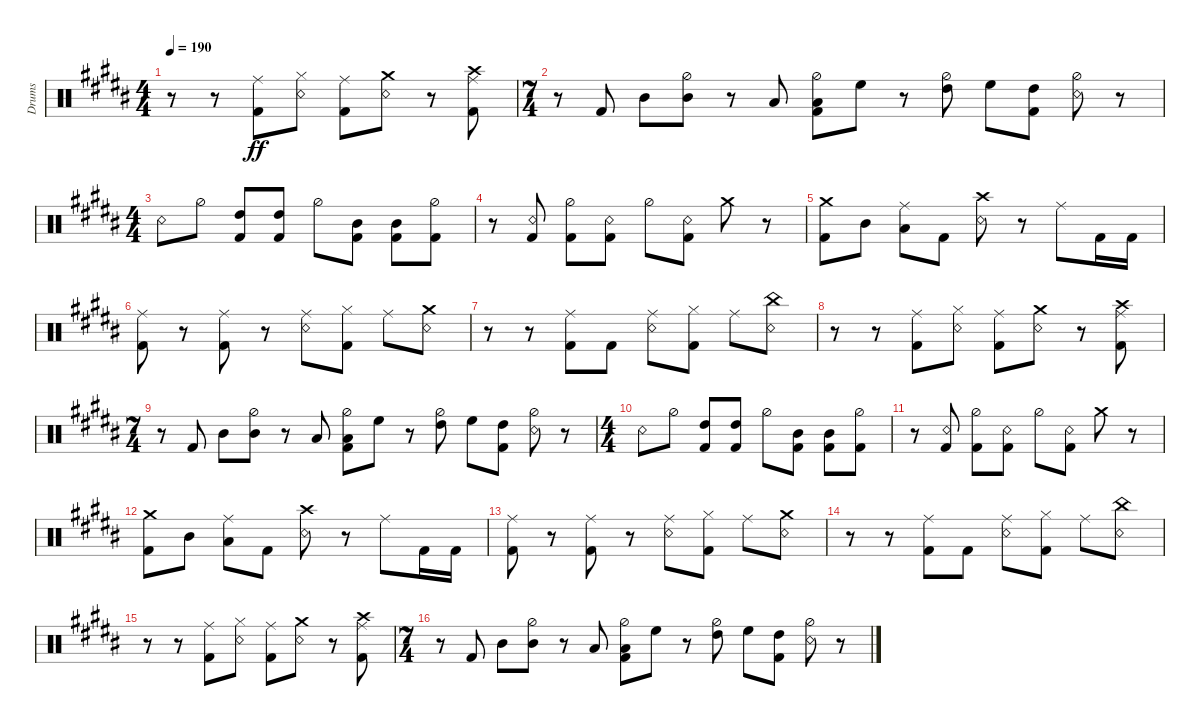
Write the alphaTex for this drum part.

\bracketExtendMode groupsimilarinstruments
\otherSystemsTrackNameOrientation horizontal
\track ("Drumkit" "Drums") {instrument percussion}
\staff {score}
\articulation defaults
\ts (4 4)
\tempo 190
\clef neutral
\ks b
r.8{dy ff} r.8 ("Kick (hit) 2"{acc forcenatural} "Ride (middle)"{acc forcenatural}).8 ("Snare (rim shot)"{acc forcenatural} "Hi-Hat (closed)"{acc forcenatural}).8 ("Kick (hit) 2"{acc forcenatural} "Ride (middle)"{acc forcenatural}).8 ("Snare (rim shot)"{acc forcenatural} "Crash medium (hit)"{acc forcenatural}).8 r.8 ("Kick (hit) 2"{acc forcenatural} "Ride (middle)"{acc forcenatural} "Crash high (hit)"{acc forcenatural}).8 |
\ts (7 4)
r.8 "Kick (hit) 2"{acc forcenatural}.8 "Mid Tom (hit)"{acc forcenatural}.8 ("Hi-Hat (half)"{acc forcenatural} "Mid Tom (hit)"{acc forcenatural}).8 r.8 "Low Tom (hit)"{acc forcenatural}.8 ("Hi-Hat (half)"{acc forcenatural} "Kick (hit) 2"{acc forcenatural} "Low Tom (hit)"{acc forcenatural}).8 "High Floor Tom (hit)"{acc forcenatural}.8 r.8 ("Hi-Hat (half)"{acc forcenatural} "High Tom (hit)"{acc forcenatural}).8 "High Floor Tom (hit)"{acc forcenatural}.8 ("Kick (hit) 2"{acc forcenatural} "High Tom (hit)"{acc forcenatural}).8 ("Snare (rim shot)"{acc forcenatural} "Hi-Hat (half)"{acc forcenatural}).8 r.8 |
\ts (4 4)
"Snare (rim shot)"{acc forcenatural}.8 "Hi-Hat (half)"{acc forcenatural}.8 ("Kick (hit) 2"{acc forcenatural} "High Tom (hit)"{acc forcenatural}).8 ("Kick (hit) 2"{acc forcenatural} "High Tom (hit)"{acc forcenatural}).8 "Hi-Hat (half)"{acc forcenatural}.8 ("Kick (hit) 2"{acc forcenatural} "Mid Tom (hit)"{acc forcenatural}).8 ("Kick (hit) 2"{acc forcenatural} "Mid Tom (hit)"{acc forcenatural}).8 ("Kick (hit) 2"{acc forcenatural} "Hi-Hat (half)"{acc forcenatural}).8 |
r.8 ("Kick (hit) 2"{acc forcenatural} "Snare (rim shot)"{acc forcenatural}).8 ("Kick (hit) 2"{acc forcenatural} "Hi-Hat (half)"{acc forcenatural}).8 ("Kick (hit) 2"{acc forcenatural} "Snare (rim shot)"{acc forcenatural}).8 "Hi-Hat (half)"{acc forcenatural}.8 ("Kick (hit) 2"{acc forcenatural} "Snare (rim shot)"{acc forcenatural}).8 "Crash medium (hit)"{acc forcenatural}.8 r.8 |
("Crash medium (hit)"{acc forcenatural} "Kick (hit) 2"{acc forcenatural}).8 "Mid Tom (hit)"{acc forcenatural}.8 ("Low Tom (hit)"{acc forcenatural} "Ride (middle)"{acc forcenatural}).8 "Kick (hit) 2"{acc forcenatural}.8 ("Snare (rim shot)"{acc forcenatural} "Crash high (hit)"{acc forcenatural}).8 r.8 "Ride (middle)"{acc forcenatural}.8 "Kick (hit) 2"{acc forcenatural}.16 "Kick (hit) 2"{acc forcenatural}.16 |
("Kick (hit) 2"{acc forcenatural} "Ride (middle)"{acc forcenatural}).8 r.8 ("Kick (hit) 2"{acc forcenatural} "Ride (middle)"{acc forcenatural}).8 r.8 ("Snare (rim shot)"{acc forcenatural} "Ride (middle)"{acc forcenatural}).8 ("Kick (hit) 2"{acc forcenatural} "Hi-Hat (closed)"{acc forcenatural}).8 "Ride (middle)"{acc forcenatural}.8 ("Snare (rim shot)"{acc forcenatural} "Crash medium (hit)"{acc forcenatural}).8 |
r.8 r.8 ("Kick (hit) 2"{acc forcenatural} "Ride (middle)"{acc forcenatural}).8 "Kick (hit) 2"{acc forcenatural}.8 ("Snare (rim shot)"{acc forcenatural} "Ride (middle)"{acc forcenatural}).8 ("Kick (hit) 2"{acc forcenatural} "Hi-Hat (closed)"{acc forcenatural}).8 "Ride (middle)"{acc forcenatural}.8 ("Snare (rim shot)"{acc forcenatural} "China (hit)"{acc forcenatural}).8 |
r.8 r.8 ("Kick (hit) 2"{acc forcenatural} "Ride (middle)"{acc forcenatural}).8 ("Snare (rim shot)"{acc forcenatural} "Hi-Hat (closed)"{acc forcenatural}).8 ("Kick (hit) 2"{acc forcenatural} "Ride (middle)"{acc forcenatural}).8 ("Snare (rim shot)"{acc forcenatural} "Crash medium (hit)"{acc forcenatural}).8 r.8 ("Kick (hit) 2"{acc forcenatural} "Ride (middle)"{acc forcenatural} "Crash high (hit)"{acc forcenatural}).8 |
\ts (7 4)
r.8 "Kick (hit) 2"{acc forcenatural}.8 "Mid Tom (hit)"{acc forcenatural}.8 ("Hi-Hat (half)"{acc forcenatural} "Mid Tom (hit)"{acc forcenatural}).8 r.8 "Low Tom (hit)"{acc forcenatural}.8 ("Hi-Hat (half)"{acc forcenatural} "Kick (hit) 2"{acc forcenatural} "Low Tom (hit)"{acc forcenatural}).8 "High Floor Tom (hit)"{acc forcenatural}.8 r.8 ("Hi-Hat (half)"{acc forcenatural} "High Tom (hit)"{acc forcenatural}).8 "High Floor Tom (hit)"{acc forcenatural}.8 ("Kick (hit) 2"{acc forcenatural} "High Tom (hit)"{acc forcenatural}).8 ("Snare (rim shot)"{acc forcenatural} "Hi-Hat (half)"{acc forcenatural}).8 r.8 |
\ts (4 4)
"Snare (rim shot)"{acc forcenatural}.8 "Hi-Hat (half)"{acc forcenatural}.8 ("Kick (hit) 2"{acc forcenatural} "High Tom (hit)"{acc forcenatural}).8 ("Kick (hit) 2"{acc forcenatural} "High Tom (hit)"{acc forcenatural}).8 "Hi-Hat (half)"{acc forcenatural}.8 ("Kick (hit) 2"{acc forcenatural} "Mid Tom (hit)"{acc forcenatural}).8 ("Kick (hit) 2"{acc forcenatural} "Mid Tom (hit)"{acc forcenatural}).8 ("Kick (hit) 2"{acc forcenatural} "Hi-Hat (half)"{acc forcenatural}).8 |
r.8 ("Kick (hit) 2"{acc forcenatural} "Snare (rim shot)"{acc forcenatural}).8 ("Kick (hit) 2"{acc forcenatural} "Hi-Hat (half)"{acc forcenatural}).8 ("Kick (hit) 2"{acc forcenatural} "Snare (rim shot)"{acc forcenatural}).8 "Hi-Hat (half)"{acc forcenatural}.8 ("Kick (hit) 2"{acc forcenatural} "Snare (rim shot)"{acc forcenatural}).8 "Crash medium (hit)"{acc forcenatural}.8 r.8 |
("Crash medium (hit)"{acc forcenatural} "Kick (hit) 2"{acc forcenatural}).8 "Mid Tom (hit)"{acc forcenatural}.8 ("Low Tom (hit)"{acc forcenatural} "Ride (middle)"{acc forcenatural}).8 "Kick (hit) 2"{acc forcenatural}.8 ("Snare (rim shot)"{acc forcenatural} "Crash high (hit)"{acc forcenatural}).8 r.8 "Ride (middle)"{acc forcenatural}.8 "Kick (hit) 2"{acc forcenatural}.16 "Kick (hit) 2"{acc forcenatural}.16 |
("Kick (hit) 2"{acc forcenatural} "Ride (middle)"{acc forcenatural}).8 r.8 ("Kick (hit) 2"{acc forcenatural} "Ride (middle)"{acc forcenatural}).8 r.8 ("Snare (rim shot)"{acc forcenatural} "Ride (middle)"{acc forcenatural}).8 ("Kick (hit) 2"{acc forcenatural} "Hi-Hat (closed)"{acc forcenatural}).8 "Ride (middle)"{acc forcenatural}.8 ("Snare (rim shot)"{acc forcenatural} "Crash medium (hit)"{acc forcenatural}).8 |
r.8 r.8 ("Kick (hit) 2"{acc forcenatural} "Ride (middle)"{acc forcenatural}).8 "Kick (hit) 2"{acc forcenatural}.8 ("Snare (rim shot)"{acc forcenatural} "Ride (middle)"{acc forcenatural}).8 ("Kick (hit) 2"{acc forcenatural} "Hi-Hat (closed)"{acc forcenatural}).8 "Ride (middle)"{acc forcenatural}.8 ("Snare (rim shot)"{acc forcenatural} "China (hit)"{acc forcenatural}).8 |
r.8 r.8 ("Kick (hit) 2"{acc forcenatural} "Ride (middle)"{acc forcenatural}).8 ("Snare (rim shot)"{acc forcenatural} "Hi-Hat (closed)"{acc forcenatural}).8 ("Kick (hit) 2"{acc forcenatural} "Ride (middle)"{acc forcenatural}).8 ("Snare (rim shot)"{acc forcenatural} "Crash medium (hit)"{acc forcenatural}).8 r.8 ("Kick (hit) 2"{acc forcenatural} "Ride (middle)"{acc forcenatural} "Crash high (hit)"{acc forcenatural}).8 |
\ts (7 4)
r.8 "Kick (hit) 2"{acc forcenatural}.8 "Mid Tom (hit)"{acc forcenatural}.8 ("Hi-Hat (half)"{acc forcenatural} "Mid Tom (hit)"{acc forcenatural}).8 r.8 "Low Tom (hit)"{acc forcenatural}.8 ("Hi-Hat (half)"{acc forcenatural} "Kick (hit) 2"{acc forcenatural} "Low Tom (hit)"{acc forcenatural}).8 "High Floor Tom (hit)"{acc forcenatural}.8 r.8 ("Hi-Hat (half)"{acc forcenatural} "High Tom (hit)"{acc forcenatural}).8 "High Floor Tom (hit)"{acc forcenatural}.8 ("Kick (hit) 2"{acc forcenatural} "High Tom (hit)"{acc forcenatural}).8 ("Snare (rim shot)"{acc forcenatural} "Hi-Hat (half)"{acc forcenatural}).8 r.8
